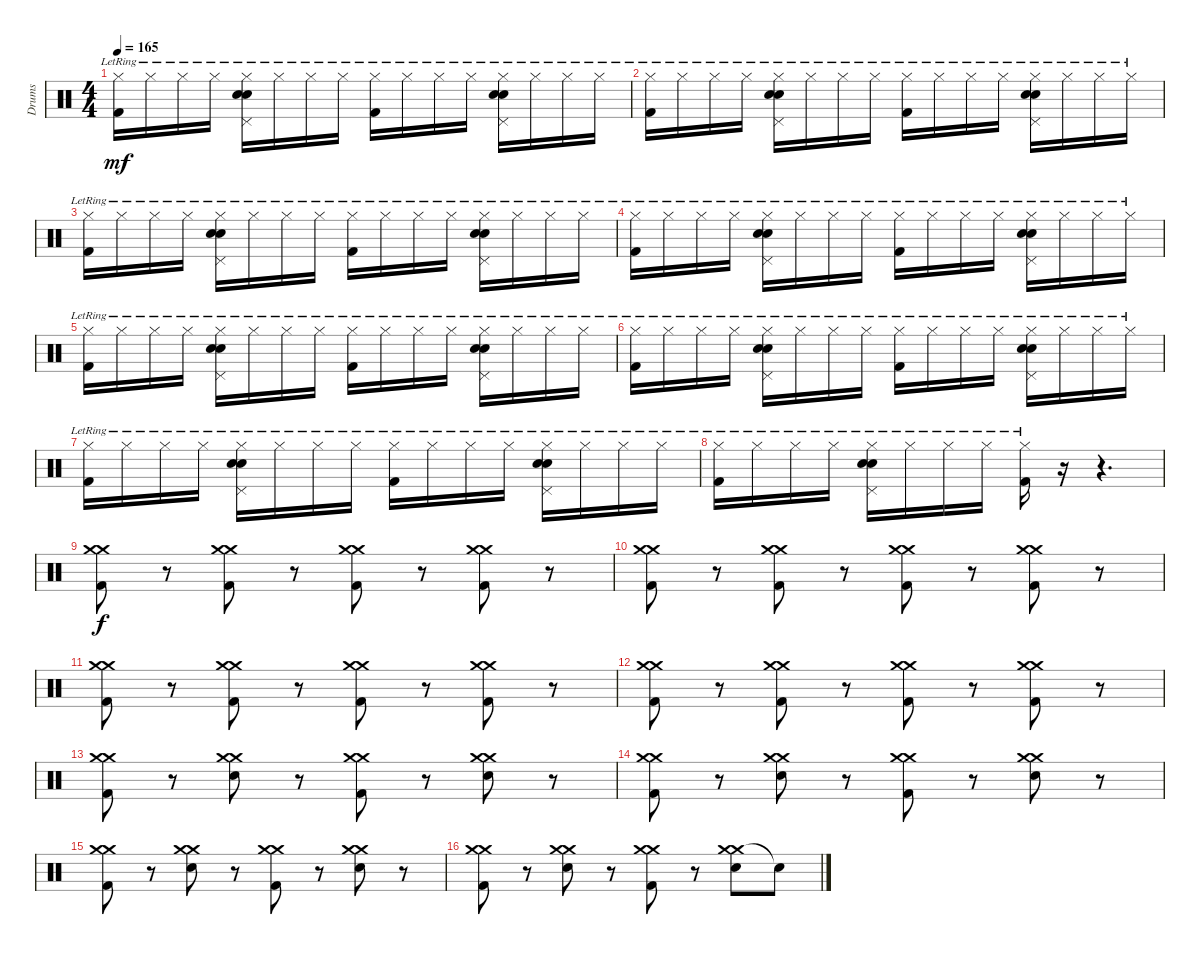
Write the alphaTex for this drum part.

\track ("Drums" "Drums") {instrument percussion}
\staff {score}
\articulation defaults
\ts (4 4)
\tempo 165
\clef neutral
\ks c
("Hi-Hat (closed)"{lr} "Kick (hit) 2").16{dy mf} "Hi-Hat (closed)"{lr}.16 "Hi-Hat (closed)"{lr}.16 "Hi-Hat (closed)"{lr}.16 ("Hi-Hat (closed)"{lr} "Pedal Hi-Hat (hit)" "Electric Snare (hit)" "Electric Snare (hit)").16 "Hi-Hat (closed)"{lr}.16 "Hi-Hat (closed)"{lr}.16 "Hi-Hat (closed)"{lr}.16 ("Hi-Hat (closed)"{lr} "Kick (hit) 2").16 "Hi-Hat (closed)"{lr}.16 "Hi-Hat (closed)"{lr}.16 "Hi-Hat (closed)"{lr}.16 ("Hi-Hat (closed)"{lr} "Pedal Hi-Hat (hit)" "Electric Snare (hit)" "Electric Snare (hit)").16 "Hi-Hat (closed)"{lr}.16 "Hi-Hat (closed)"{lr}.16 "Hi-Hat (closed)"{lr}.16 |
("Hi-Hat (closed)"{lr} "Kick (hit) 2").16 "Hi-Hat (closed)"{lr}.16 "Hi-Hat (closed)"{lr}.16 "Hi-Hat (closed)"{lr}.16 ("Hi-Hat (closed)"{lr} "Pedal Hi-Hat (hit)" "Electric Snare (hit)" "Electric Snare (hit)").16 "Hi-Hat (closed)"{lr}.16 "Hi-Hat (closed)"{lr}.16 "Hi-Hat (closed)"{lr}.16 ("Hi-Hat (closed)"{lr} "Kick (hit) 2").16 "Hi-Hat (closed)"{lr}.16 "Hi-Hat (closed)"{lr}.16 "Hi-Hat (closed)"{lr}.16 ("Hi-Hat (closed)"{lr} "Pedal Hi-Hat (hit)" "Electric Snare (hit)" "Electric Snare (hit)").16 "Hi-Hat (closed)"{lr}.16 "Hi-Hat (closed)"{lr}.16 "Hi-Hat (closed)"{lr}.16 |
("Hi-Hat (closed)"{lr} "Kick (hit) 2").16 "Hi-Hat (closed)"{lr}.16 "Hi-Hat (closed)"{lr}.16 "Hi-Hat (closed)"{lr}.16 ("Hi-Hat (closed)"{lr} "Pedal Hi-Hat (hit)" "Electric Snare (hit)" "Electric Snare (hit)").16 "Hi-Hat (closed)"{lr}.16 "Hi-Hat (closed)"{lr}.16 "Hi-Hat (closed)"{lr}.16 ("Hi-Hat (closed)"{lr} "Kick (hit) 2").16 "Hi-Hat (closed)"{lr}.16 "Hi-Hat (closed)"{lr}.16 "Hi-Hat (closed)"{lr}.16 ("Hi-Hat (closed)"{lr} "Pedal Hi-Hat (hit)" "Electric Snare (hit)" "Electric Snare (hit)").16 "Hi-Hat (closed)"{lr}.16 "Hi-Hat (closed)"{lr}.16 "Hi-Hat (closed)"{lr}.16 |
("Hi-Hat (closed)"{lr} "Kick (hit) 2").16 "Hi-Hat (closed)"{lr}.16 "Hi-Hat (closed)"{lr}.16 "Hi-Hat (closed)"{lr}.16 ("Hi-Hat (closed)"{lr} "Pedal Hi-Hat (hit)" "Electric Snare (hit)" "Electric Snare (hit)").16 "Hi-Hat (closed)"{lr}.16 "Hi-Hat (closed)"{lr}.16 "Hi-Hat (closed)"{lr}.16 ("Hi-Hat (closed)"{lr} "Kick (hit) 2").16 "Hi-Hat (closed)"{lr}.16 "Hi-Hat (closed)"{lr}.16 "Hi-Hat (closed)"{lr}.16 ("Hi-Hat (closed)"{lr} "Pedal Hi-Hat (hit)" "Electric Snare (hit)" "Electric Snare (hit)").16 "Hi-Hat (closed)"{lr}.16 "Hi-Hat (closed)"{lr}.16 "Hi-Hat (closed)"{lr}.16 |
("Hi-Hat (closed)"{lr} "Kick (hit) 2").16 "Hi-Hat (closed)"{lr}.16 "Hi-Hat (closed)"{lr}.16 "Hi-Hat (closed)"{lr}.16 ("Hi-Hat (closed)"{lr} "Pedal Hi-Hat (hit)" "Electric Snare (hit)" "Electric Snare (hit)").16 "Hi-Hat (closed)"{lr}.16 "Hi-Hat (closed)"{lr}.16 "Hi-Hat (closed)"{lr}.16 ("Hi-Hat (closed)"{lr} "Kick (hit) 2").16 "Hi-Hat (closed)"{lr}.16 "Hi-Hat (closed)"{lr}.16 "Hi-Hat (closed)"{lr}.16 ("Hi-Hat (closed)"{lr} "Pedal Hi-Hat (hit)" "Electric Snare (hit)" "Electric Snare (hit)").16 "Hi-Hat (closed)"{lr}.16 "Hi-Hat (closed)"{lr}.16 "Hi-Hat (closed)"{lr}.16 |
("Hi-Hat (closed)"{lr} "Kick (hit) 2").16 "Hi-Hat (closed)"{lr}.16 "Hi-Hat (closed)"{lr}.16 "Hi-Hat (closed)"{lr}.16 ("Hi-Hat (closed)"{lr} "Pedal Hi-Hat (hit)" "Electric Snare (hit)" "Electric Snare (hit)").16 "Hi-Hat (closed)"{lr}.16 "Hi-Hat (closed)"{lr}.16 "Hi-Hat (closed)"{lr}.16 ("Hi-Hat (closed)"{lr} "Kick (hit) 2").16 "Hi-Hat (closed)"{lr}.16 "Hi-Hat (closed)"{lr}.16 "Hi-Hat (closed)"{lr}.16 ("Hi-Hat (closed)"{lr} "Pedal Hi-Hat (hit)" "Electric Snare (hit)" "Electric Snare (hit)").16 "Hi-Hat (closed)"{lr}.16 "Hi-Hat (closed)"{lr}.16 "Hi-Hat (closed)"{lr}.16 |
("Hi-Hat (closed)"{lr} "Kick (hit) 2").16 "Hi-Hat (closed)"{lr}.16 "Hi-Hat (closed)"{lr}.16 "Hi-Hat (closed)"{lr}.16 ("Hi-Hat (closed)"{lr} "Pedal Hi-Hat (hit)" "Electric Snare (hit)" "Electric Snare (hit)").16 "Hi-Hat (closed)"{lr}.16 "Hi-Hat (closed)"{lr}.16 "Hi-Hat (closed)"{lr}.16 ("Hi-Hat (closed)"{lr} "Kick (hit) 2").16 "Hi-Hat (closed)"{lr}.16 "Hi-Hat (closed)"{lr}.16 "Hi-Hat (closed)"{lr}.16 ("Hi-Hat (closed)"{lr} "Pedal Hi-Hat (hit)" "Electric Snare (hit)" "Electric Snare (hit)").16 "Hi-Hat (closed)"{lr}.16 "Hi-Hat (closed)"{lr}.16 "Hi-Hat (closed)"{lr}.16 |
("Hi-Hat (closed)"{lr} "Kick (hit) 2").16 "Hi-Hat (closed)"{lr}.16 "Hi-Hat (closed)"{lr}.16 "Hi-Hat (closed)"{lr}.16 ("Hi-Hat (closed)"{lr} "Pedal Hi-Hat (hit)" "Electric Snare (hit)" "Electric Snare (hit)").16 "Hi-Hat (closed)"{lr}.16 "Hi-Hat (closed)"{lr}.16 "Hi-Hat (closed)"{lr}.16 ("Hi-Hat (closed)"{lr} "Kick (hit) 2").16 r.16 r.4{d} |
("Crash medium (hit)" "Crash medium (hit)" "Kick (hit) 2").8{dy f} r.8 ("Crash medium (hit)" "Crash medium (hit)" "Kick (hit) 2").8 r.8 ("Crash medium (hit)" "Crash medium (hit)" "Kick (hit) 2").8 r.8 ("Crash medium (hit)" "Crash medium (hit)" "Kick (hit) 2").8 r.8 |
("Crash medium (hit)" "Crash medium (hit)" "Kick (hit) 2").8 r.8 ("Crash medium (hit)" "Crash medium (hit)" "Kick (hit) 2").8 r.8 ("Crash medium (hit)" "Crash medium (hit)" "Kick (hit) 2").8 r.8 ("Crash medium (hit)" "Crash medium (hit)" "Kick (hit) 2").8 r.8 |
("Crash medium (hit)" "Crash medium (hit)" "Kick (hit) 2").8 r.8 ("Crash medium (hit)" "Crash medium (hit)" "Kick (hit) 2").8 r.8 ("Crash medium (hit)" "Crash medium (hit)" "Kick (hit) 2").8 r.8 ("Crash medium (hit)" "Crash medium (hit)" "Kick (hit) 2").8 r.8 |
("Crash medium (hit)" "Crash medium (hit)" "Kick (hit) 2").8 r.8 ("Crash medium (hit)" "Crash medium (hit)" "Kick (hit) 2").8 r.8 ("Crash medium (hit)" "Crash medium (hit)" "Kick (hit) 2").8 r.8 ("Crash medium (hit)" "Crash medium (hit)" "Kick (hit) 2").8 r.8 |
("Crash medium (hit)" "Crash medium (hit)" "Kick (hit) 2").8 r.8 ("Crash medium (hit)" "Crash medium (hit)" "Electric Snare (hit)").8 r.8 ("Crash medium (hit)" "Crash medium (hit)" "Kick (hit) 2").8 r.8 ("Crash medium (hit)" "Crash medium (hit)" "Electric Snare (hit)").8 r.8 |
("Crash medium (hit)" "Crash medium (hit)" "Kick (hit) 2").8 r.8 ("Crash medium (hit)" "Crash medium (hit)" "Electric Snare (hit)").8 r.8 ("Crash medium (hit)" "Crash medium (hit)" "Kick (hit) 2").8 r.8 ("Crash medium (hit)" "Crash medium (hit)" "Electric Snare (hit)").8 r.8 |
("Crash medium (hit)" "Crash medium (hit)" "Kick (hit) 2").8 r.8 ("Crash medium (hit)" "Crash medium (hit)" "Electric Snare (hit)").8 r.8 ("Crash medium (hit)" "Crash medium (hit)" "Kick (hit) 2").8 r.8 ("Crash medium (hit)" "Crash medium (hit)" "Electric Snare (hit)").8 r.8 |
("Crash medium (hit)" "Crash medium (hit)" "Kick (hit) 2").8 r.8 ("Crash medium (hit)" "Crash medium (hit)" "Electric Snare (hit)").8 r.8 ("Crash medium (hit)" "Crash medium (hit)" "Kick (hit) 2").8 r.8 ("Crash medium (hit)" "Crash medium (hit)" "Electric Snare (hit)").8 "Snare (hit)"{t}.8
